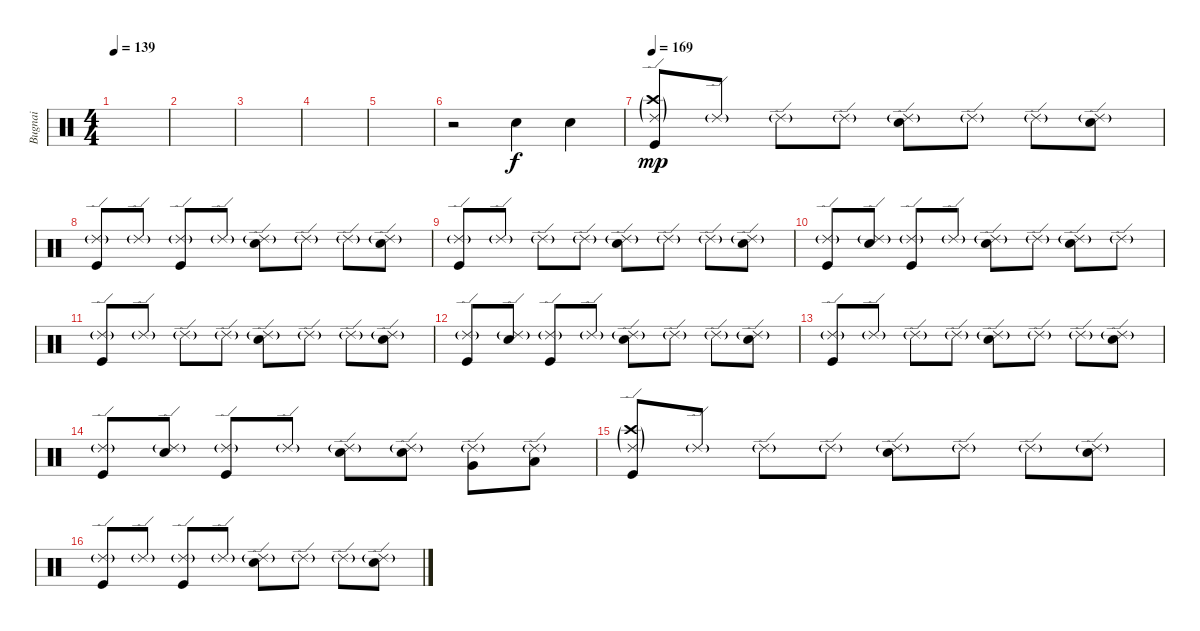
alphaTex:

\track ("Bugnai" "Bugnai") {instrument percussion}
\staff {score}
\articulation defaults
\ts (4 4)
\tempo 139
\clef neutral
\ks c
|
|
|
|
|
r.2 "Snare (hit) 2".4 "Snare (hit) 2".4 |
\tempo 169
("Ride (edge) 2"{g} "Crash high (hit)"{g} "Kick (hit)").8{dy mp} "Ride (edge) 2"{g}.8 "Ride (edge) 2"{g}.8 "Ride (edge) 2"{g}.8 ("Ride (edge) 2"{g} "Snare (hit) 2").8 "Ride (edge) 2"{g}.8 "Ride (edge) 2"{g}.8 ("Ride (edge) 2"{g} "Snare (hit) 2").8 |
("Ride (edge) 2"{g} "Kick (hit)").8 "Ride (edge) 2"{g}.8 ("Ride (edge) 2"{g} "Kick (hit)").8 "Ride (edge) 2"{g}.8 ("Ride (edge) 2"{g} "Snare (hit) 2").8 "Ride (edge) 2"{g}.8 "Ride (edge) 2"{g}.8 ("Ride (edge) 2"{g} "Snare (hit) 2").8 |
("Ride (edge) 2"{g} "Kick (hit)").8 "Ride (edge) 2"{g}.8 "Ride (edge) 2"{g}.8 "Ride (edge) 2"{g}.8 ("Ride (edge) 2"{g} "Snare (hit) 2").8 "Ride (edge) 2"{g}.8 "Ride (edge) 2"{g}.8 ("Ride (edge) 2"{g} "Snare (hit) 2").8 |
("Ride (edge) 2"{g} "Kick (hit)").8 ("Ride (edge) 2"{g} "Snare (hit) 2").8 ("Ride (edge) 2"{g} "Kick (hit)").8 "Ride (edge) 2"{g}.8 ("Ride (edge) 2"{g} "Snare (hit) 2").8 "Ride (edge) 2"{g}.8 ("Ride (edge) 2"{g} "Snare (hit) 2").8 "Ride (edge) 2"{g}.8 |
("Ride (edge) 2"{g} "Kick (hit)").8 "Ride (edge) 2"{g}.8 "Ride (edge) 2"{g}.8 "Ride (edge) 2"{g}.8 ("Ride (edge) 2"{g} "Snare (hit) 2").8 "Ride (edge) 2"{g}.8 "Ride (edge) 2"{g}.8 ("Ride (edge) 2"{g} "Snare (hit) 2").8 |
("Ride (edge) 2"{g} "Kick (hit)").8 ("Ride (edge) 2"{g} "Snare (hit) 2").8 ("Ride (edge) 2"{g} "Kick (hit)").8 "Ride (edge) 2"{g}.8 ("Ride (edge) 2"{g} "Snare (hit) 2").8 "Ride (edge) 2"{g}.8 "Ride (edge) 2"{g}.8 ("Ride (edge) 2"{g} "Snare (hit) 2").8 |
("Ride (edge) 2"{g} "Kick (hit)").8 "Ride (edge) 2"{g}.8 "Ride (edge) 2"{g}.8 "Ride (edge) 2"{g}.8 ("Ride (edge) 2"{g} "Snare (hit) 2").8 "Ride (edge) 2"{g}.8 "Ride (edge) 2"{g}.8 ("Ride (edge) 2"{g} "Snare (hit) 2").8 |
("Ride (edge) 2"{g} "Kick (hit)").8 ("Ride (edge) 2"{g} "Snare (hit) 2").8 ("Ride (edge) 2"{g} "Kick (hit)").8 "Ride (edge) 2"{g}.8 ("Ride (edge) 2"{g} "Snare (hit) 2").8 ("Ride (edge) 2"{g} "Snare (hit) 2").8 ("Ride (edge) 2"{g} "Very Low Tom (hit)").8 ("Ride (edge) 2"{g} "Low Floor Tom (hit)").8 |
("Ride (edge) 2"{g} "Crash high (hit)"{g} "Kick (hit)").8 "Ride (edge) 2"{g}.8 "Ride (edge) 2"{g}.8 "Ride (edge) 2"{g}.8 ("Ride (edge) 2"{g} "Snare (hit) 2").8 "Ride (edge) 2"{g}.8 "Ride (edge) 2"{g}.8 ("Ride (edge) 2"{g} "Snare (hit) 2").8 |
("Ride (edge) 2"{g} "Kick (hit)").8 "Ride (edge) 2"{g}.8 ("Ride (edge) 2"{g} "Kick (hit)").8 "Ride (edge) 2"{g}.8 ("Ride (edge) 2"{g} "Snare (hit) 2").8 "Ride (edge) 2"{g}.8 "Ride (edge) 2"{g}.8 ("Ride (edge) 2"{g} "Snare (hit) 2").8
